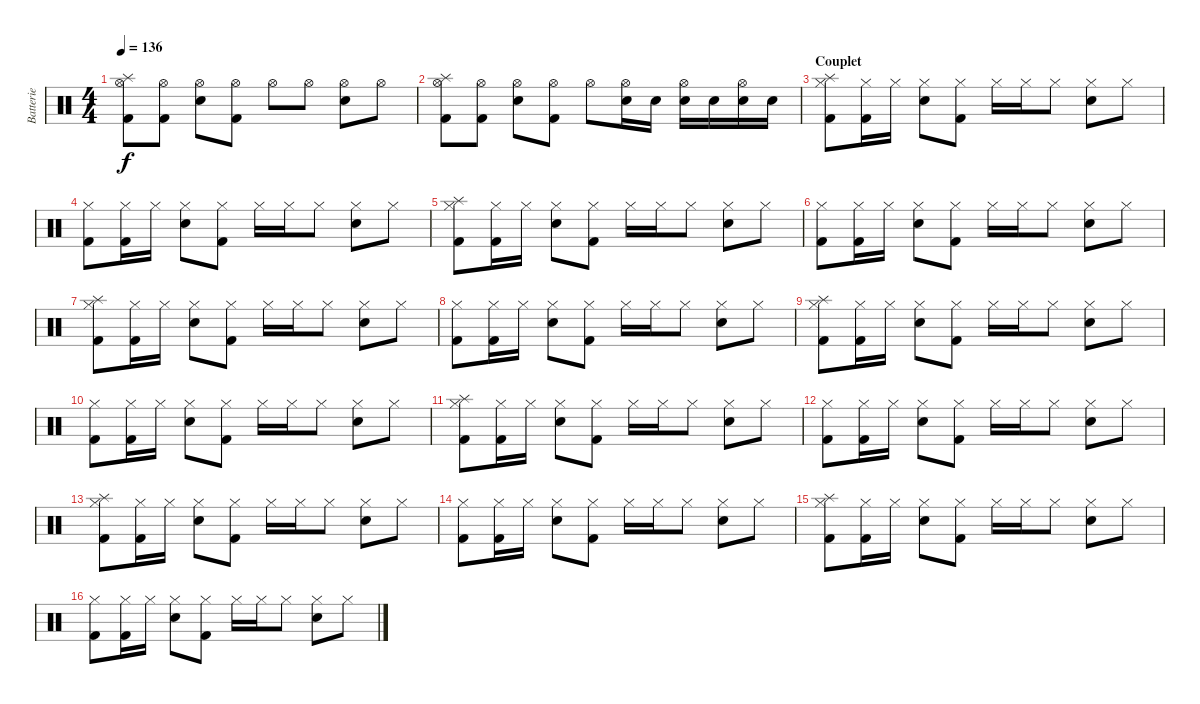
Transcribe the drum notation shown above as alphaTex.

\track ("Batterie" "Batterie") {instrument percussion}
\staff {score}
\articulation defaults
\ts (4 4)
\tempo 136
\clef neutral
\ks c
("Splash (hit)" "Hi-Hat (open)" "Kick (hit) 2").8{dy f} ("Hi-Hat (open)" "Kick (hit) 2").8 ("Hi-Hat (open)" "Snare (hit) 2").8 ("Hi-Hat (open)" "Kick (hit) 2").8 "Hi-Hat (open)".8 "Hi-Hat (open)".8 ("Hi-Hat (open)" "Snare (hit) 2").8 "Hi-Hat (open)".8 |
("Splash (hit)" "Hi-Hat (open)" "Kick (hit) 2").8 ("Hi-Hat (open)" "Kick (hit) 2").8 ("Hi-Hat (open)" "Snare (hit) 2").8 ("Hi-Hat (open)" "Kick (hit) 2").8 "Hi-Hat (open)".8 ("Hi-Hat (open)" "Snare (hit) 2").16 "Snare (hit) 2".16 ("Hi-Hat (open)" "Snare (hit) 2").16 "Snare (hit) 2".16 ("Hi-Hat (open)" "Snare (hit) 2").16 "Snare (hit) 2".16 |
\section ("" "Couplet")
("Splash (hit)" "Hi-Hat (closed)" "Kick (hit) 2").8 ("Hi-Hat (closed)" "Kick (hit) 2").16 "Hi-Hat (closed)".16 ("Hi-Hat (closed)" "Snare (hit) 2").8 ("Hi-Hat (closed)" "Kick (hit) 2").8 "Hi-Hat (closed)".16 "Hi-Hat (closed)".16 "Hi-Hat (closed)".8 ("Hi-Hat (closed)" "Snare (hit) 2").8 "Hi-Hat (closed)".8 |
("Hi-Hat (closed)" "Kick (hit) 2").8 ("Hi-Hat (closed)" "Kick (hit) 2").16 "Hi-Hat (closed)".16 ("Hi-Hat (closed)" "Snare (hit) 2").8 ("Hi-Hat (closed)" "Kick (hit) 2").8 "Hi-Hat (closed)".16 "Hi-Hat (closed)".16 "Hi-Hat (closed)".8 ("Hi-Hat (closed)" "Snare (hit) 2").8 "Hi-Hat (closed)".8 |
("Splash (hit)" "Hi-Hat (closed)" "Kick (hit) 2").8 ("Hi-Hat (closed)" "Kick (hit) 2").16 "Hi-Hat (closed)".16 ("Hi-Hat (closed)" "Snare (hit) 2").8 ("Hi-Hat (closed)" "Kick (hit) 2").8 "Hi-Hat (closed)".16 "Hi-Hat (closed)".16 "Hi-Hat (closed)".8 ("Hi-Hat (closed)" "Snare (hit) 2").8 "Hi-Hat (closed)".8 |
("Hi-Hat (closed)" "Kick (hit) 2").8 ("Hi-Hat (closed)" "Kick (hit) 2").16 "Hi-Hat (closed)".16 ("Hi-Hat (closed)" "Snare (hit) 2").8 ("Hi-Hat (closed)" "Kick (hit) 2").8 "Hi-Hat (closed)".16 "Hi-Hat (closed)".16 "Hi-Hat (closed)".8 ("Hi-Hat (closed)" "Snare (hit) 2").8 "Hi-Hat (closed)".8 |
("Splash (hit)" "Hi-Hat (closed)" "Kick (hit) 2").8 ("Hi-Hat (closed)" "Kick (hit) 2").16 "Hi-Hat (closed)".16 ("Hi-Hat (closed)" "Snare (hit) 2").8 ("Hi-Hat (closed)" "Kick (hit) 2").8 "Hi-Hat (closed)".16 "Hi-Hat (closed)".16 "Hi-Hat (closed)".8 ("Hi-Hat (closed)" "Snare (hit) 2").8 "Hi-Hat (closed)".8 |
("Hi-Hat (closed)" "Kick (hit) 2").8 ("Hi-Hat (closed)" "Kick (hit) 2").16 "Hi-Hat (closed)".16 ("Hi-Hat (closed)" "Snare (hit) 2").8 ("Hi-Hat (closed)" "Kick (hit) 2").8 "Hi-Hat (closed)".16 "Hi-Hat (closed)".16 "Hi-Hat (closed)".8 ("Hi-Hat (closed)" "Snare (hit) 2").8 "Hi-Hat (closed)".8 |
("Splash (hit)" "Hi-Hat (closed)" "Kick (hit) 2").8 ("Hi-Hat (closed)" "Kick (hit) 2").16 "Hi-Hat (closed)".16 ("Hi-Hat (closed)" "Snare (hit) 2").8 ("Hi-Hat (closed)" "Kick (hit) 2").8 "Hi-Hat (closed)".16 "Hi-Hat (closed)".16 "Hi-Hat (closed)".8 ("Hi-Hat (closed)" "Snare (hit) 2").8 "Hi-Hat (closed)".8 |
("Hi-Hat (closed)" "Kick (hit) 2").8 ("Hi-Hat (closed)" "Kick (hit) 2").16 "Hi-Hat (closed)".16 ("Hi-Hat (closed)" "Snare (hit) 2").8 ("Hi-Hat (closed)" "Kick (hit) 2").8 "Hi-Hat (closed)".16 "Hi-Hat (closed)".16 "Hi-Hat (closed)".8 ("Hi-Hat (closed)" "Snare (hit) 2").8 "Hi-Hat (closed)".8 |
("Splash (hit)" "Hi-Hat (closed)" "Kick (hit) 2").8 ("Hi-Hat (closed)" "Kick (hit) 2").16 "Hi-Hat (closed)".16 ("Hi-Hat (closed)" "Snare (hit) 2").8 ("Hi-Hat (closed)" "Kick (hit) 2").8 "Hi-Hat (closed)".16 "Hi-Hat (closed)".16 "Hi-Hat (closed)".8 ("Hi-Hat (closed)" "Snare (hit) 2").8 "Hi-Hat (closed)".8 |
("Hi-Hat (closed)" "Kick (hit) 2").8 ("Hi-Hat (closed)" "Kick (hit) 2").16 "Hi-Hat (closed)".16 ("Hi-Hat (closed)" "Snare (hit) 2").8 ("Hi-Hat (closed)" "Kick (hit) 2").8 "Hi-Hat (closed)".16 "Hi-Hat (closed)".16 "Hi-Hat (closed)".8 ("Hi-Hat (closed)" "Snare (hit) 2").8 "Hi-Hat (closed)".8 |
("Splash (hit)" "Hi-Hat (closed)" "Kick (hit) 2").8 ("Hi-Hat (closed)" "Kick (hit) 2").16 "Hi-Hat (closed)".16 ("Hi-Hat (closed)" "Snare (hit) 2").8 ("Hi-Hat (closed)" "Kick (hit) 2").8 "Hi-Hat (closed)".16 "Hi-Hat (closed)".16 "Hi-Hat (closed)".8 ("Hi-Hat (closed)" "Snare (hit) 2").8 "Hi-Hat (closed)".8 |
("Hi-Hat (closed)" "Kick (hit) 2").8 ("Hi-Hat (closed)" "Kick (hit) 2").16 "Hi-Hat (closed)".16 ("Hi-Hat (closed)" "Snare (hit) 2").8 ("Hi-Hat (closed)" "Kick (hit) 2").8 "Hi-Hat (closed)".16 "Hi-Hat (closed)".16 "Hi-Hat (closed)".8 ("Hi-Hat (closed)" "Snare (hit) 2").8 "Hi-Hat (closed)".8 |
("Splash (hit)" "Hi-Hat (closed)" "Kick (hit) 2").8 ("Hi-Hat (closed)" "Kick (hit) 2").16 "Hi-Hat (closed)".16 ("Hi-Hat (closed)" "Snare (hit) 2").8 ("Hi-Hat (closed)" "Kick (hit) 2").8 "Hi-Hat (closed)".16 "Hi-Hat (closed)".16 "Hi-Hat (closed)".8 ("Hi-Hat (closed)" "Snare (hit) 2").8 "Hi-Hat (closed)".8 |
("Hi-Hat (closed)" "Kick (hit) 2").8 ("Hi-Hat (closed)" "Kick (hit) 2").16 "Hi-Hat (closed)".16 ("Hi-Hat (closed)" "Snare (hit) 2").8 ("Hi-Hat (closed)" "Kick (hit) 2").8 "Hi-Hat (closed)".16 "Hi-Hat (closed)".16 "Hi-Hat (closed)".8 ("Hi-Hat (closed)" "Snare (hit) 2").8 "Hi-Hat (closed)".8
